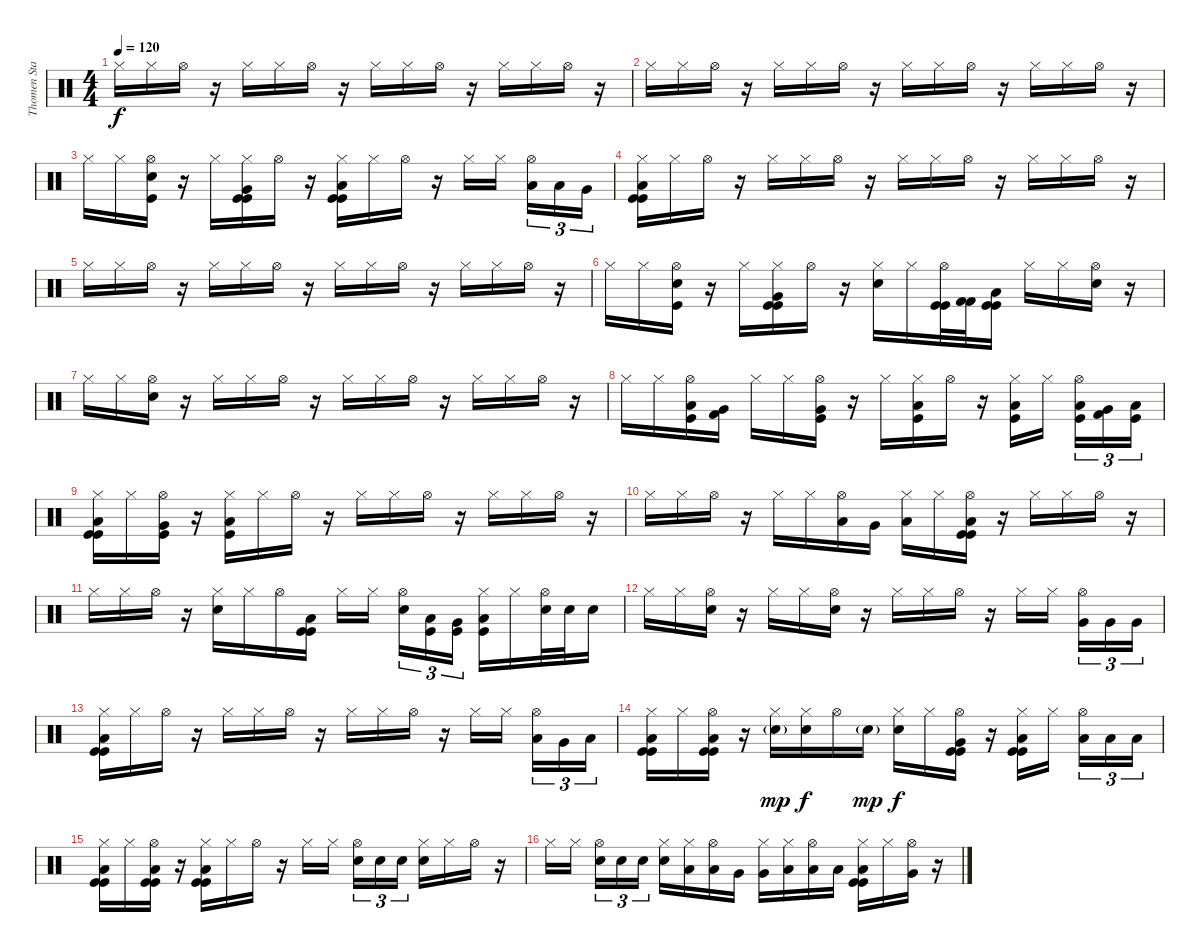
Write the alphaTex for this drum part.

\track ("Thomen Stauch" "Thomen Sta") {instrument percussion}
\staff {score}
\articulation defaults
\ts (4 4)
\tempo 120
\clef neutral
\ks c "Hi-Hat (closed)".16{dy f volume 16} "Hi-Hat (closed)".16 "Hi-Hat (open)".16
r.16 "Hi-Hat (closed)".16 "Hi-Hat (closed)".16 "Hi-Hat (open)".16 r.16 "Hi-Hat (closed)".16 "Hi-Hat (closed)".16 "Hi-Hat (open)".16 r.16 "Hi-Hat (closed)".16 "Hi-Hat (closed)".16 "Hi-Hat (open)".16 r.16 |
"Hi-Hat (closed)".16 "Hi-Hat (closed)".16 "Hi-Hat (open)".16 r.16 "Hi-Hat (closed)".16 "Hi-Hat (closed)".16 "Hi-Hat (open)".16 r.16 "Hi-Hat (closed)".16 "Hi-Hat (closed)".16 "Hi-Hat (open)".16 r.16 "Hi-Hat (closed)".16 "Hi-Hat (closed)".16 "Hi-Hat (open)".16 r.16 |
"Hi-Hat (closed)".16 "Hi-Hat (closed)".16 ("Hi-Hat (open)" "Snare (hit) 2" "Kick (hit)").16 r.16 "Hi-Hat (closed)".16 ("Hi-Hat (closed)" "Very Low Tom (hit)" "Kick (hit)" "Kick (hit)").16 "Hi-Hat (open)".16 r.16 ("Hi-Hat (closed)" "Low Floor Tom (hit)" "Kick (hit)" "Kick (hit)").16 "Hi-Hat (closed)".16 "Hi-Hat (open)".16 r.16 "Hi-Hat (closed)".16 "Hi-Hat (closed)".16 ("Hi-Hat (open)" "Low Tom (hit)").16{tu (3 2)} "Low Tom (hit)".16{tu (3 2)} "Very Low Tom (hit)".16{tu (3 2)} |
("Hi-Hat (closed)" "Low Floor Tom (hit)" "Kick (hit)" "Kick (hit)").16 "Hi-Hat (closed)".16 "Hi-Hat (open)".16 r.16 "Hi-Hat (closed)".16 "Hi-Hat (closed)".16 "Hi-Hat (open)".16 r.16 "Hi-Hat (closed)".16 "Hi-Hat (closed)".16 "Hi-Hat (open)".16 r.16 "Hi-Hat (closed)".16 "Hi-Hat (closed)".16 "Hi-Hat (open)".16 r.16 |
"Hi-Hat (closed)".16 "Hi-Hat (closed)".16 "Hi-Hat (open)".16 r.16 "Hi-Hat (closed)".16 "Hi-Hat (closed)".16 "Hi-Hat (open)".16 r.16 "Hi-Hat (closed)".16 "Hi-Hat (closed)".16 "Hi-Hat (open)".16 r.16 "Hi-Hat (closed)".16 "Hi-Hat (closed)".16 "Hi-Hat (open)".16 r.16 |
"Hi-Hat (closed)".16 "Hi-Hat (closed)".16 ("Hi-Hat (open)" "Snare (hit) 2" "Kick (hit)").16 r.16 "Hi-Hat (closed)".16 ("Hi-Hat (closed)" "Very Low Tom (hit)" "Kick (hit)" "Kick (hit)").16 "Hi-Hat (open)".16 r.16 ("Hi-Hat (closed)" "Snare (hit) 2").16 "Hi-Hat (closed)".16 ("Hi-Hat (open)" "Kick (hit)" "Kick (hit)").32 ("Kick (hit) 2" "Kick (hit) 2").32 ("Low Floor Tom (hit)" "Kick (hit)" "Kick (hit)").16 "Hi-Hat (closed)".16 "Hi-Hat (closed)".16 ("Hi-Hat (open)" "Snare (hit) 2").16 r.16 |
"Hi-Hat (closed)".16 "Hi-Hat (closed)".16 ("Hi-Hat (open)" "Snare (hit) 2").16 r.16 "Hi-Hat (closed)".16 "Hi-Hat (closed)".16 "Hi-Hat (open)".16 r.16 "Hi-Hat (closed)".16 "Hi-Hat (closed)".16 "Hi-Hat (open)".16 r.16 "Hi-Hat (closed)".16 "Hi-Hat (closed)".16 "Hi-Hat (open)".16 r.16 |
"Hi-Hat (closed)".16 "Hi-Hat (closed)".16 ("Hi-Hat (open)" "Low Tom (hit)" "Kick (hit)").16 ("Very Low Tom (hit)" "Kick (hit) 2").16 "Hi-Hat (closed)".16 "Hi-Hat (closed)".16 ("Hi-Hat (open)" "Very Low Tom (hit)" "Kick (hit)").16 r.16 "Hi-Hat (closed)".16 ("Hi-Hat (closed)" "Low Floor Tom (hit)" "Kick (hit)").16 "Hi-Hat (open)".16 r.16 ("Hi-Hat (closed)" "Low Floor Tom (hit)" "Kick (hit)").16 "Hi-Hat (closed)".16 ("Hi-Hat (open)" "Low Tom (hit)" "Kick (hit)").16{tu (3 2)} ("Very Low Tom (hit)" "Kick (hit) 2").16{tu (3 2)} ("Low Floor Tom (hit)" "Kick (hit)").16{tu (3 2)} |
("Hi-Hat (closed)" "Low Floor Tom (hit)" "Kick (hit)" "Kick (hit)").16 "Hi-Hat (closed)".16 ("Hi-Hat (open)" "Very Low Tom (hit)" "Kick (hit)").16 r.16 ("Hi-Hat (closed)" "Low Floor Tom (hit)" "Kick (hit)").16 "Hi-Hat (closed)".16 "Hi-Hat (open)".16 r.16 "Hi-Hat (closed)".16 "Hi-Hat (closed)".16 "Hi-Hat (open)".16 r.16 "Hi-Hat (closed)".16 "Hi-Hat (closed)".16 "Hi-Hat (open)".16 r.16 |
"Hi-Hat (closed)".16 "Hi-Hat (closed)".16 "Hi-Hat (open)".16 r.16 "Hi-Hat (closed)".16 "Hi-Hat (closed)".16 ("Hi-Hat (open)" "Low Tom (hit)").16 "Very Low Tom (hit)".16 ("Hi-Hat (closed)" "Low Floor Tom (hit)").16 "Hi-Hat (closed)".16 ("Hi-Hat (open)" "Low Floor Tom (hit)" "Kick (hit)" "Kick (hit)").16 r.16 "Hi-Hat (closed)".16 "Hi-Hat (closed)".16 "Hi-Hat (open)".16 r.16 |
"Hi-Hat (closed)".16 "Hi-Hat (closed)".16 "Hi-Hat (open)".16 r.16 ("Hi-Hat (closed)" "Snare (hit) 2").16 "Hi-Hat (closed)".16 "Hi-Hat (open)".16 ("Low Floor Tom (hit)" "Kick (hit)" "Kick (hit)").16 "Hi-Hat (closed)".16 "Hi-Hat (closed)".16 ("Hi-Hat (open)" "Snare (hit) 2").16{tu (3 2)} ("Low Tom (hit)" "Kick (hit)").16{tu (3 2)} ("Very Low Tom (hit)" "Kick (hit)").16{tu (3 2)} ("Hi-Hat (closed)" "Low Floor Tom (hit)" "Kick (hit)").16 "Hi-Hat (closed)".16 ("Hi-Hat (open)" "Snare (hit) 2").32 "Snare (hit) 2".32 "Snare (hit) 2".16 |
"Hi-Hat (closed)".16 "Hi-Hat (closed)".16 ("Hi-Hat (open)" "Snare (hit) 2").16 r.16 "Hi-Hat (closed)".16 "Hi-Hat (closed)".16 ("Hi-Hat (open)" "Snare (hit) 2").16 r.16 "Hi-Hat (closed)".16 "Hi-Hat (closed)".16 "Hi-Hat (open)".16 r.16 "Hi-Hat (closed)".16 "Hi-Hat (closed)".16 ("Hi-Hat (open)" "Very Low Tom (hit)").16{tu (3 2)} "Very Low Tom (hit)".16{tu (3 2)} "Very Low Tom (hit)".16{tu (3 2)} |
("Hi-Hat (closed)" "Low Floor Tom (hit)" "Kick (hit)" "Kick (hit)").16 "Hi-Hat (closed)".16 "Hi-Hat (open)".16 r.16 "Hi-Hat (closed)".16 "Hi-Hat (closed)".16 "Hi-Hat (open)".16 r.16 "Hi-Hat (closed)".16 "Hi-Hat (closed)".16 "Hi-Hat (open)".16 r.16 "Hi-Hat (closed)".16 "Hi-Hat (closed)".16 ("Hi-Hat (open)" "Low Tom (hit)").16{tu (3 2)} "Very Low Tom (hit)".16{tu (3 2)} "Low Floor Tom (hit)".16{tu (3 2)} |
("Hi-Hat (closed)" "Low Floor Tom (hit)" "Kick (hit)" "Kick (hit)").16 "Hi-Hat (closed)".16 ("Hi-Hat (open)" "Low Floor Tom (hit)" "Kick (hit)" "Kick (hit)").16 r.16 ("Hi-Hat (closed)" "Snare (hit) 2"{g}).16{dy mp} ("Hi-Hat (closed)" "Snare (hit) 2").16{dy f} "Hi-Hat (open)".16 "Snare (hit) 2"{g}.16{dy mp} ("Hi-Hat (closed)" "Snare (hit) 2").16{dy f} "Hi-Hat (closed)".16 ("Hi-Hat (open)" "Very Low Tom (hit)" "Kick (hit)" "Kick (hit)").16 r.16 ("Hi-Hat (closed)" "Low Floor Tom (hit)" "Kick (hit)" "Kick (hit)").16 "Hi-Hat (closed)".16 ("Hi-Hat (open)" "Low Floor Tom (hit)").16{tu (3 2)} "Low Floor Tom (hit)".16{tu (3 2)} "Low Floor Tom (hit)".16{tu (3 2)} |
("Hi-Hat (closed)" "Low Floor Tom (hit)" "Kick (hit)" "Kick (hit)").16 "Hi-Hat (closed)".16 ("Hi-Hat (open)" "Low Floor Tom (hit)" "Kick (hit)" "Kick (hit)").16 r.16 ("Hi-Hat (closed)" "Low Floor Tom (hit)" "Kick (hit)" "Kick (hit)").16 "Hi-Hat (closed)".16 "Hi-Hat (open)".16 r.16 "Hi-Hat (closed)".16 "Hi-Hat (closed)".16 ("Hi-Hat (open)" "Snare (hit) 2").16{tu (3 2)} "Snare (hit) 2".16{tu (3 2)} "Snare (hit) 2".16{tu (3 2)} ("Hi-Hat (closed)" "Snare (hit) 2").16 "Hi-Hat (closed)".16 "Hi-Hat (open)".16 r.16 |
"Hi-Hat (closed)".16 "Hi-Hat (closed)".16 ("Hi-Hat (open)" "Snare (hit) 2").16{tu (3 2)} "Snare (hit) 2".16{tu (3 2)} "Snare (hit) 2".16{tu (3 2)} ("Hi-Hat (closed)" "Snare (hit) 2").16 ("Hi-Hat (closed)" "Low Tom (hit)").16 ("Hi-Hat (open)" "Low Tom (hit)").16 "Very Low Tom (hit)".16 ("Hi-Hat (closed)" "Very Low Tom (hit)").16 ("Hi-Hat (closed)" "Low Floor Tom (hit)").16 ("Hi-Hat (open)" "Low Floor Tom (hit)").16 "Low Floor Tom (hit)".16 ("Hi-Hat (closed)" "Low Floor Tom (hit)" "Kick (hit)" "Kick (hit)").16 "Hi-Hat (closed)".16 ("Hi-Hat (open)" "Very Low Tom (hit)").16 r.16
